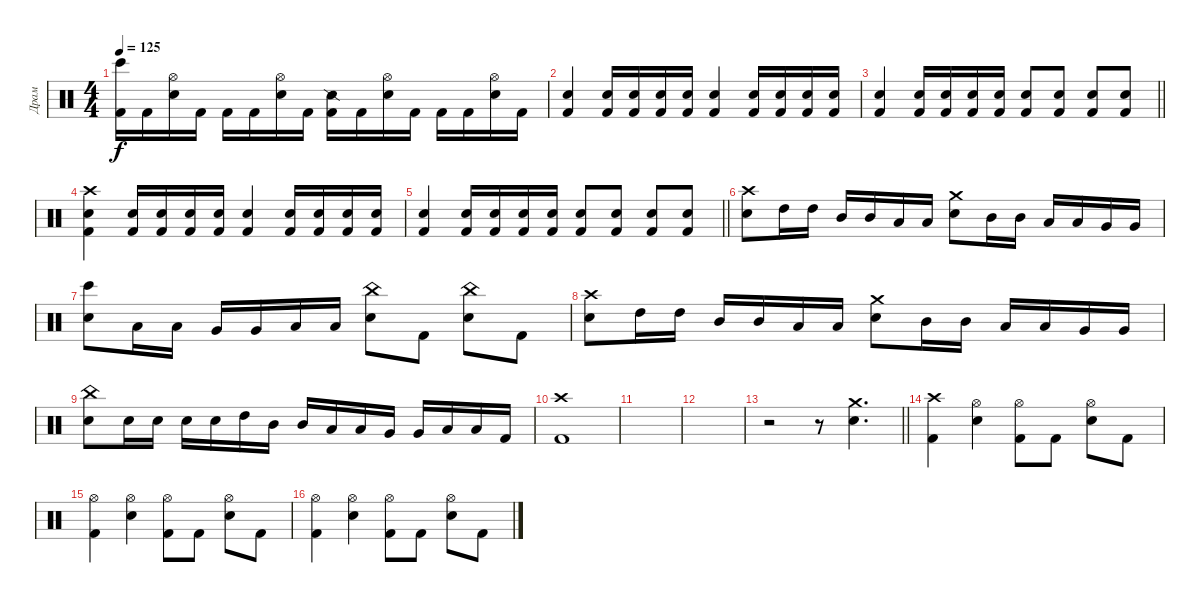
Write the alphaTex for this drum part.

\track ("Драм" "Драм") {instrument percussion}
\staff {score}
\articulation defaults
\ts (4 4)
\tempo 125
\clef neutral
\ks c
("Kick (hit) 2" "Bongo High (hit)").16{dy f} "Kick (hit) 2".16 ("Hi-Hat (open)" "Snare (hit) 2").16 "Kick (hit) 2".16 "Kick (hit) 2".16 "Kick (hit) 2".16 ("Hi-Hat (open)" "Snare (hit) 2").16 "Kick (hit) 2".16 ("Kick (hit) 2" "Snare (side stick) 2").16 "Kick (hit) 2".16 ("Hi-Hat (open)" "Snare (hit) 2").16 "Kick (hit) 2".16 "Kick (hit) 2".16 "Kick (hit) 2".16 ("Hi-Hat (open)" "Snare (hit) 2").16 "Kick (hit) 2".16 |
("Snare (hit) 2" "Kick (hit) 2").4 ("Snare (hit) 2" "Kick (hit) 2").16 ("Snare (hit) 2" "Kick (hit) 2").16 ("Snare (hit) 2" "Kick (hit) 2").16 ("Snare (hit) 2" "Kick (hit) 2").16 ("Snare (hit) 2" "Kick (hit) 2").4 ("Snare (hit) 2" "Kick (hit) 2").16 ("Snare (hit) 2" "Kick (hit) 2").16 ("Snare (hit) 2" "Kick (hit) 2").16 ("Snare (hit) 2" "Kick (hit) 2").16 |
\barLineRight lightlight
("Snare (hit) 2" "Kick (hit) 2").4 ("Snare (hit) 2" "Kick (hit) 2").16 ("Snare (hit) 2" "Kick (hit) 2").16 ("Snare (hit) 2" "Kick (hit) 2").16 ("Snare (hit) 2" "Kick (hit) 2").16 ("Snare (hit) 2" "Kick (hit) 2").8 ("Snare (hit) 2" "Kick (hit) 2").8 ("Snare (hit) 2" "Kick (hit) 2").8 ("Snare (hit) 2" "Kick (hit) 2").8 |
("Snare (hit) 2" "Kick (hit) 2" "Crash high (hit)").4 ("Snare (hit) 2" "Kick (hit) 2").16 ("Snare (hit) 2" "Kick (hit) 2").16 ("Snare (hit) 2" "Kick (hit) 2").16 ("Snare (hit) 2" "Kick (hit) 2").16 ("Snare (hit) 2" "Kick (hit) 2").4 ("Snare (hit) 2" "Kick (hit) 2").16 ("Snare (hit) 2" "Kick (hit) 2").16 ("Snare (hit) 2" "Kick (hit) 2").16 ("Snare (hit) 2" "Kick (hit) 2").16 |
\barLineRight lightlight
("Snare (hit) 2" "Kick (hit) 2").4 ("Snare (hit) 2" "Kick (hit) 2").16 ("Snare (hit) 2" "Kick (hit) 2").16 ("Snare (hit) 2" "Kick (hit) 2").16 ("Snare (hit) 2" "Kick (hit) 2").16 ("Snare (hit) 2" "Kick (hit) 2").8 ("Snare (hit) 2" "Kick (hit) 2").8 ("Snare (hit) 2" "Kick (hit) 2").8 ("Snare (hit) 2" "Kick (hit) 2").8 |
("Snare (hit) 2" "Crash high (hit)").8 "High Tom (hit)".16 "High Tom (hit)".16 "Mid Tom (hit)".16 "Mid Tom (hit)".16 "Low Tom (hit)".16 "Low Tom (hit)".16 ("Snare (hit) 2" "Crash medium (hit)").8 "Mid Tom (hit)".16 "Mid Tom (hit)".16 "Low Tom (hit)".16 "Low Tom (hit)".16 "Very Low Tom (hit)".16 "Very Low Tom (hit)".16 |
("Snare (hit) 2" "Bongo High (hit)").8 "Low Tom (hit)".16 "Low Tom (hit)".16 "Very Low Tom (hit)".16 "Very Low Tom (hit)".16 "Low Floor Tom (hit)".16 "Low Floor Tom (hit)".16 ("Snare (hit) 2" "China (hit)").8 "Kick (hit) 2".8 ("Snare (hit) 2" "China (hit)").8 "Kick (hit) 2".8 |
("Snare (hit) 2" "Crash high (hit)").8 "High Tom (hit)".16 "High Tom (hit)".16 "Mid Tom (hit)".16 "Mid Tom (hit)".16 "Low Tom (hit)".16 "Low Tom (hit)".16 ("Snare (hit) 2" "Crash medium (hit)").8 "Mid Tom (hit)".16 "Mid Tom (hit)".16 "Low Tom (hit)".16 "Low Tom (hit)".16 "Very Low Tom (hit)".16 "Very Low Tom (hit)".16 |
("Snare (hit) 2" "China (hit)").8 "Snare (hit) 2".16 "Snare (hit) 2".16 "Snare (hit) 2".16 "Snare (hit) 2".16 "High Tom (hit)".16 "Mid Tom (hit)".16 "Mid Tom (hit)".16 "Low Tom (hit)".16 "Low Tom (hit)".16 "Very Low Tom (hit)".16 "Very Low Tom (hit)".16 "Low Floor Tom (hit)".16 "Low Floor Tom (hit)".16 "Kick (hit) 2".16 |
("Kick (hit) 2" "Crash high (hit)").1 |
|
|
\barLineRight lightlight
r.2 r.8 ("Snare (hit) 2" "Crash medium (hit)").4{d} |
("Kick (hit) 2" "Crash high (hit)").4 ("Hi-Hat (open)" "Snare (hit) 2").4 ("Hi-Hat (open)" "Kick (hit) 2").8 "Kick (hit) 2".8 ("Hi-Hat (open)" "Snare (hit) 2").8 "Kick (hit) 2".8 |
("Hi-Hat (open)" "Kick (hit) 2").4 ("Hi-Hat (open)" "Snare (hit) 2").4 ("Hi-Hat (open)" "Kick (hit) 2").8 "Kick (hit) 2".8 ("Hi-Hat (open)" "Snare (hit) 2").8 "Kick (hit) 2".8 |
("Hi-Hat (open)" "Kick (hit) 2").4 ("Hi-Hat (open)" "Snare (hit) 2").4 ("Hi-Hat (open)" "Kick (hit) 2").8 "Kick (hit) 2".8 ("Hi-Hat (open)" "Snare (hit) 2").8 "Kick (hit) 2".8
